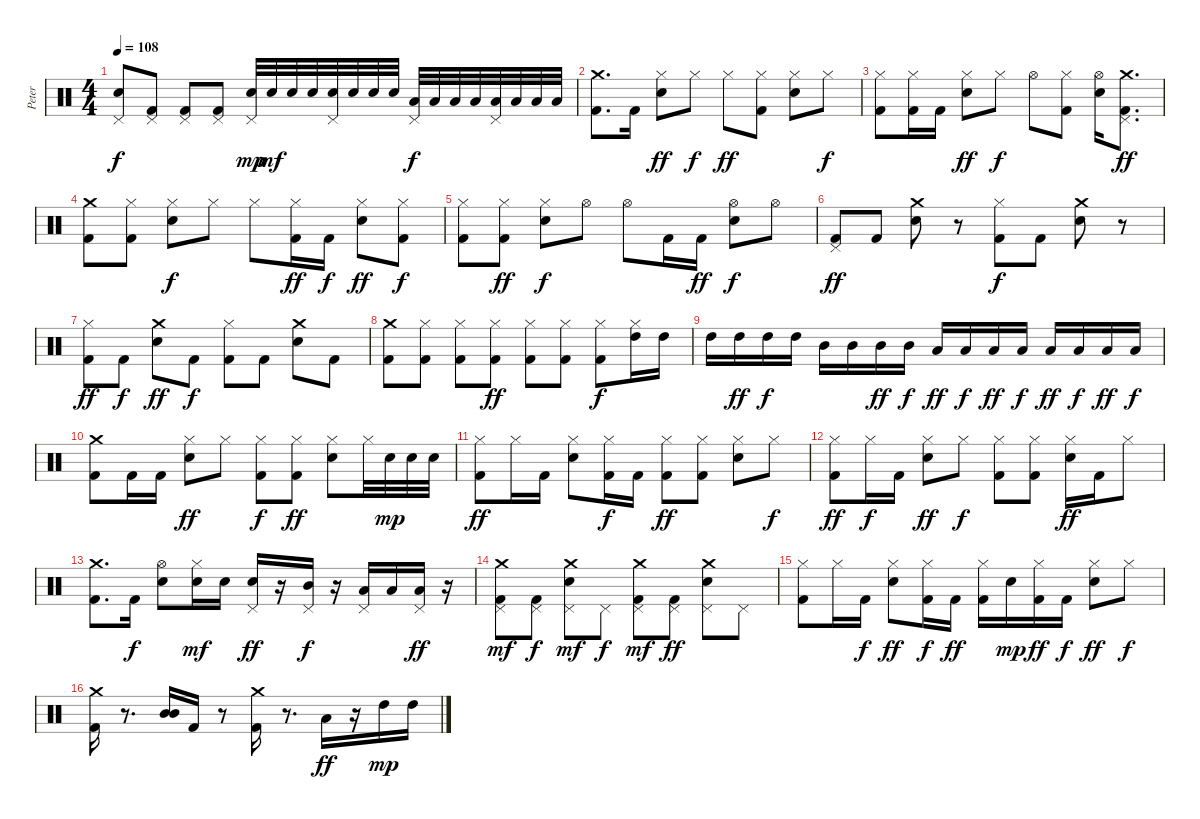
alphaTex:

\track ("Peter" "Peter") {instrument percussion}
\staff {score}
\articulation defaults
\ts (4 4)
\tempo 108
\clef neutral
\ks c
("Pedal Hi-Hat (hit)" "Electric Snare (hit)").8{dy f} ("Kick (hit) 2" "Pedal Hi-Hat (hit)").8 ("Pedal Hi-Hat (hit)" "Kick (hit) 2").8 ("Kick (hit) 2" "Pedal Hi-Hat (hit)").8 ("Electric Snare (hit)" "Pedal Hi-Hat (hit)").32{dy mp} "Electric Snare (hit)".32{dy mf} "Electric Snare (hit)".32 "Electric Snare (hit)".32 ("Pedal Hi-Hat (hit)" "Electric Snare (hit)").32 "Electric Snare (hit)".32 "Electric Snare (hit)".32 "Electric Snare (hit)".32 ("Low Tom (hit)" "Pedal Hi-Hat (hit)").32{dy f} "Low Tom (hit)".32 "Low Tom (hit)".32 "Low Tom (hit)".32 ("Pedal Hi-Hat (hit)" "Low Tom (hit)").32 "Low Tom (hit)".32 "Low Tom (hit)".32 "Low Tom (hit)".32 |
("Kick (hit) 2" "Crash medium (hit)").8{d} "Kick (hit) 2".16 ("Electric Snare (hit)" "Hi-Hat (closed)").8{dy ff} "Hi-Hat (closed)".8{dy f} "Hi-Hat (closed)".8{dy ff} ("Kick (hit) 2" "Hi-Hat (closed)").8 ("Hi-Hat (closed)" "Electric Snare (hit)").8 "Hi-Hat (closed)".8{dy f} |
("Kick (hit) 2" "Hi-Hat (closed)").8 ("Kick (hit) 2" "Hi-Hat (closed)").16 "Kick (hit) 2".16 ("Electric Snare (hit)" "Hi-Hat (closed)").8{dy ff} "Hi-Hat (closed)".8{dy f} "Hi-Hat (open)".8 ("Hi-Hat (closed)" "Kick (hit) 2").8 ("Electric Snare (hit)" "Hi-Hat (open)").16 ("Pedal Hi-Hat (hit)" "Kick (hit) 2" "Crash medium (hit)").8{d dy ff} |
("Kick (hit) 2" "Crash medium (hit)").8 ("Hi-Hat (closed)" "Kick (hit) 2").8 ("Hi-Hat (closed)" "Electric Snare (hit)").8{dy f} "Hi-Hat (closed)".8 "Hi-Hat (closed)".8 ("Kick (hit) 2" "Hi-Hat (closed)").16{dy ff} "Kick (hit) 2".16{dy f} ("Electric Snare (hit)" "Hi-Hat (closed)").8{dy ff} ("Hi-Hat (closed)" "Kick (hit) 2").8{dy f} |
("Kick (hit) 2" "Hi-Hat (closed)").8 ("Kick (hit) 2" "Hi-Hat (closed)").8{dy ff} ("Hi-Hat (closed)" "Electric Snare (hit)").8{dy f} "Hi-Hat (open)".8 "Hi-Hat (open)".8 "Kick (hit) 2".16 "Kick (hit) 2".16{dy ff} ("Electric Snare (hit)" "Hi-Hat (open)").8{dy f} "Hi-Hat (open)".8 |
("Pedal Hi-Hat (hit)" "Kick (hit) 2").8{dy ff} "Kick (hit) 2".8 ("Electric Snare (hit)" "Crash medium (hit)").8 r.8 ("Kick (hit) 2" "Hi-Hat (closed)").8{dy f} "Kick (hit) 2".8 ("Electric Snare (hit)" "Crash medium (hit)").8 r.8 |
("Hi-Hat (closed)" "Kick (hit) 2").8{dy ff} "Kick (hit) 2".8{dy f} ("Crash medium (hit)" "Electric Snare (hit)").8{dy ff} "Kick (hit) 2".8{dy f} ("Hi-Hat (closed)" "Kick (hit) 2").8 "Kick (hit) 2".8 ("Electric Snare (hit)" "Crash medium (hit)").8 "Kick (hit) 2".8 |
("Kick (hit) 2" "Crash medium (hit)").8 ("Hi-Hat (closed)" "Kick (hit) 2").8 ("Kick (hit) 2" "Hi-Hat (closed)").8 ("Kick (hit) 2" "Hi-Hat (closed)").8{dy ff} ("Kick (hit) 2" "Hi-Hat (closed)").8 ("Hi-Hat (closed)" "Kick (hit) 2").8 ("Kick (hit) 2" "Hi-Hat (closed)").8{dy f} ("High Tom (hit)" "Hi-Hat (closed)").16 "High Tom (hit)".16 |
"High Tom (hit)".16 "High Tom (hit)".16{dy ff} "High Tom (hit)".16{dy f} "High Tom (hit)".16 "Mid Tom (hit)".16 "Mid Tom (hit)".16 "Mid Tom (hit)".16{dy ff} "Mid Tom (hit)".16{dy f} "Low Tom (hit)".16{dy ff} "Low Tom (hit)".16{dy f} "Low Tom (hit)".16{dy ff} "Low Tom (hit)".16{dy f} "Low Tom (hit)".16{dy ff} "Low Tom (hit)".16{dy f} "Low Tom (hit)".16{dy ff} "Low Tom (hit)".16{dy f} |
("Kick (hit) 2" "Crash medium (hit)").8 "Kick (hit) 2".16 "Kick (hit) 2".16 ("Electric Snare (hit)" "Hi-Hat (closed)").8{dy ff} "Hi-Hat (closed)".8 ("Hi-Hat (closed)" "Kick (hit) 2").8{dy f} ("Kick (hit) 2" "Hi-Hat (closed)").8{dy ff} ("Electric Snare (hit)" "Hi-Hat (closed)").8 "Hi-Hat (closed)".32 "Electric Snare (hit)".32{dy mp} "Electric Snare (hit)".32 "Electric Snare (hit)".32 |
("Hi-Hat (closed)" "Kick (hit) 2").8{dy ff} "Hi-Hat (closed)".16 "Kick (hit) 2".16 ("Hi-Hat (closed)" "Electric Snare (hit)").8 ("Kick (hit) 2" "Hi-Hat (closed)").16{dy f} "Kick (hit) 2".16 ("Hi-Hat (closed)" "Kick (hit) 2").8{dy ff} ("Hi-Hat (closed)" "Kick (hit) 2").8 ("Electric Snare (hit)" "Hi-Hat (closed)").8 "Hi-Hat (closed)".8{dy f} |
("Kick (hit) 2" "Hi-Hat (closed)").8{dy ff} "Hi-Hat (closed)".16{dy f} "Kick (hit) 2".16 ("Hi-Hat (closed)" "Electric Snare (hit)").8{dy ff} "Hi-Hat (closed)".8{dy f} ("Kick (hit) 2" "Hi-Hat (closed)").8 ("Kick (hit) 2" "Hi-Hat (closed)").8 ("Electric Snare (hit)" "Hi-Hat (closed)").16{dy ff} "Kick (hit) 2".16 "Hi-Hat (closed)".8 |
("Crash medium (hit)" "Kick (hit) 2").8{d} "Kick (hit) 2".16{dy f} ("Electric Snare (hit)" "Hi-Hat (open)").8 ("Hi-Hat (closed)" "Electric Snare (hit)").16{dy mf} "Electric Snare (hit)".16 ("Pedal Hi-Hat (hit)" "Electric Snare (hit)").16{dy ff} r.16 ("Pedal Hi-Hat (hit)" "Mid Tom (hit)").16{dy f} r.16 ("Low Tom (hit)" "Pedal Hi-Hat (hit)").16 "Low Tom (hit)".16 ("Low Tom (hit)" "Pedal Hi-Hat (hit)").16{dy ff} r.16 |
("Kick (hit) 2" "Crash medium (hit)" "Pedal Hi-Hat (hit)").8{dy mf} ("Pedal Hi-Hat (hit)" "Kick (hit) 2").8{dy f} ("Electric Snare (hit)" "Crash medium (hit)" "Pedal Hi-Hat (hit)").8{dy mf} "Pedal Hi-Hat (hit)".8{dy f} ("Crash medium (hit)" "Kick (hit) 2" "Pedal Hi-Hat (hit)").8{dy mf} ("Pedal Hi-Hat (hit)" "Kick (hit) 2").8{dy ff} ("Crash medium (hit)" "Electric Snare (hit)" "Pedal Hi-Hat (hit)").8 "Pedal Hi-Hat (hit)".8 |
("Hi-Hat (closed)" "Kick (hit) 2").8 "Hi-Hat (closed)".16 "Kick (hit) 2".16{dy f} ("Electric Snare (hit)" "Hi-Hat (closed)").8{dy ff} ("Kick (hit) 2" "Hi-Hat (closed)").16{dy f} "Kick (hit) 2".16{dy ff} ("Hi-Hat (closed)" "Kick (hit) 2").16 "Electric Snare (hit)".16{dy mp} ("Hi-Hat (closed)" "Kick (hit) 2").16{dy ff} "Kick (hit) 2".16{dy f} ("Electric Snare (hit)" "Hi-Hat (closed)").8{dy ff} "Hi-Hat (closed)".8{dy f} |
("Crash medium (hit)" "Kick (hit) 2").16 r.8{d} ("Mid Tom (hit)" "Mid Tom (hit)").16 "Kick (hit) 2".16 r.8 ("Kick (hit) 2" "Crash medium (hit)").16 r.8{d} "Low Tom (hit)".16{dy ff} r.16 "High Tom (hit)".16{dy mp} "High Tom (hit)".16
